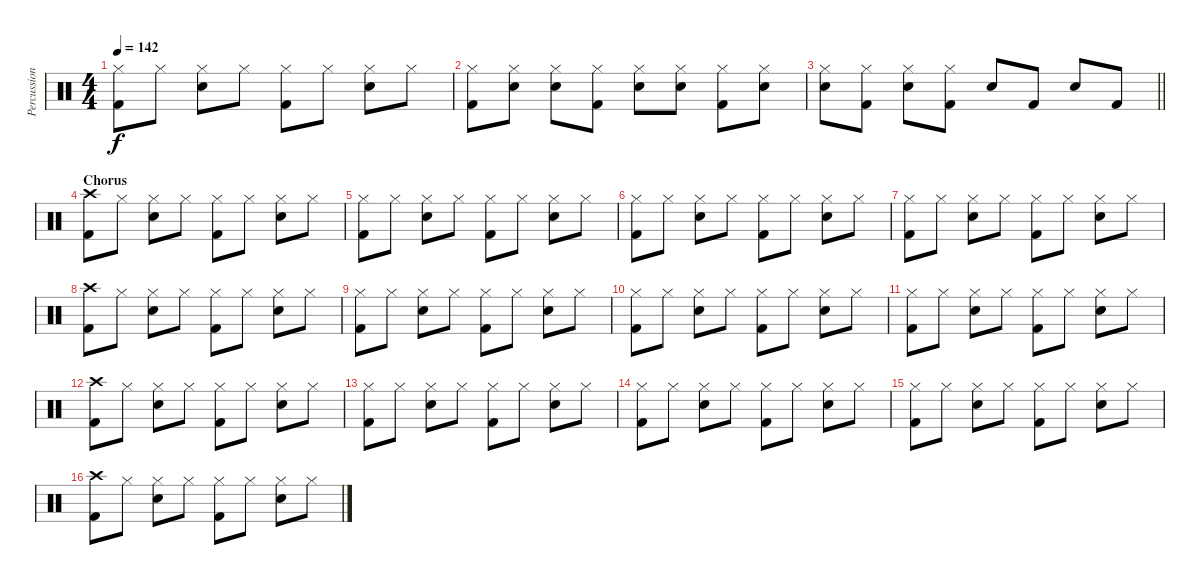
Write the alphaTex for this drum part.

\track ("Percussion" "Percussion") {instrument percussion}
\staff {score}
\articulation defaults
\ts (4 4)
\tempo 142
\clef neutral
\ks c
("Hi-Hat (closed)" "Kick (hit) 2").8{dy f} "Hi-Hat (closed)".8 ("Hi-Hat (closed)" "Electric Snare (hit)").8 "Hi-Hat (closed)".8 ("Hi-Hat (closed)" "Kick (hit) 2").8 "Hi-Hat (closed)".8 ("Hi-Hat (closed)" "Electric Snare (hit)").8 "Hi-Hat (closed)".8 |
("Hi-Hat (closed)" "Kick (hit) 2").8 ("Hi-Hat (closed)" "Electric Snare (hit)").8 ("Hi-Hat (closed)" "Electric Snare (hit)").8 ("Hi-Hat (closed)" "Kick (hit) 2").8 ("Hi-Hat (closed)" "Electric Snare (hit)").8 ("Hi-Hat (closed)" "Electric Snare (hit)").8 ("Hi-Hat (closed)" "Kick (hit) 2").8 ("Hi-Hat (closed)" "Electric Snare (hit)").8 |
\barLineRight lightlight
("Hi-Hat (closed)" "Electric Snare (hit)").8 ("Hi-Hat (closed)" "Kick (hit) 2").8 ("Hi-Hat (closed)" "Electric Snare (hit)").8 ("Hi-Hat (closed)" "Kick (hit) 2").8 "Electric Snare (hit)".8 "Kick (hit) 2".8 "Electric Snare (hit)".8 "Kick (hit) 2".8 |
\section ("" "Chorus")
("Crash high (hit)" "Kick (hit) 2").8 "Hi-Hat (closed)".8 ("Hi-Hat (closed)" "Electric Snare (hit)").8 "Hi-Hat (closed)".8 ("Hi-Hat (closed)" "Kick (hit) 2").8 "Hi-Hat (closed)".8 ("Hi-Hat (closed)" "Electric Snare (hit)").8 "Hi-Hat (closed)".8 |
("Hi-Hat (closed)" "Kick (hit) 2").8 "Hi-Hat (closed)".8 ("Hi-Hat (closed)" "Electric Snare (hit)").8 "Hi-Hat (closed)".8 ("Hi-Hat (closed)" "Kick (hit) 2").8 "Hi-Hat (closed)".8 ("Hi-Hat (closed)" "Electric Snare (hit)").8 "Hi-Hat (closed)".8 |
("Hi-Hat (closed)" "Kick (hit) 2").8 "Hi-Hat (closed)".8 ("Hi-Hat (closed)" "Electric Snare (hit)").8 "Hi-Hat (closed)".8 ("Hi-Hat (closed)" "Kick (hit) 2").8 "Hi-Hat (closed)".8 ("Hi-Hat (closed)" "Electric Snare (hit)").8 "Hi-Hat (closed)".8 |
("Hi-Hat (closed)" "Kick (hit) 2").8 "Hi-Hat (closed)".8 ("Hi-Hat (closed)" "Electric Snare (hit)").8 "Hi-Hat (closed)".8 ("Hi-Hat (closed)" "Kick (hit) 2").8 "Hi-Hat (closed)".8 ("Hi-Hat (closed)" "Electric Snare (hit)").8 "Hi-Hat (closed)".8 |
("Crash high (hit)" "Kick (hit) 2").8 "Hi-Hat (closed)".8 ("Hi-Hat (closed)" "Electric Snare (hit)").8 "Hi-Hat (closed)".8 ("Hi-Hat (closed)" "Kick (hit) 2").8 "Hi-Hat (closed)".8 ("Hi-Hat (closed)" "Electric Snare (hit)").8 "Hi-Hat (closed)".8 |
("Hi-Hat (closed)" "Kick (hit) 2").8 "Hi-Hat (closed)".8 ("Hi-Hat (closed)" "Electric Snare (hit)").8 "Hi-Hat (closed)".8 ("Hi-Hat (closed)" "Kick (hit) 2").8 "Hi-Hat (closed)".8 ("Hi-Hat (closed)" "Electric Snare (hit)").8 "Hi-Hat (closed)".8 |
("Hi-Hat (closed)" "Kick (hit) 2").8 "Hi-Hat (closed)".8 ("Hi-Hat (closed)" "Electric Snare (hit)").8 "Hi-Hat (closed)".8 ("Hi-Hat (closed)" "Kick (hit) 2").8 "Hi-Hat (closed)".8 ("Hi-Hat (closed)" "Electric Snare (hit)").8 "Hi-Hat (closed)".8 |
("Hi-Hat (closed)" "Kick (hit) 2").8 "Hi-Hat (closed)".8 ("Hi-Hat (closed)" "Electric Snare (hit)").8 "Hi-Hat (closed)".8 ("Hi-Hat (closed)" "Kick (hit) 2").8 "Hi-Hat (closed)".8 ("Hi-Hat (closed)" "Electric Snare (hit)").8 "Hi-Hat (closed)".8 |
("Crash high (hit)" "Kick (hit) 2").8 "Hi-Hat (closed)".8 ("Hi-Hat (closed)" "Electric Snare (hit)").8 "Hi-Hat (closed)".8 ("Hi-Hat (closed)" "Kick (hit) 2").8 "Hi-Hat (closed)".8 ("Hi-Hat (closed)" "Electric Snare (hit)").8 "Hi-Hat (closed)".8 |
("Hi-Hat (closed)" "Kick (hit) 2").8 "Hi-Hat (closed)".8 ("Hi-Hat (closed)" "Electric Snare (hit)").8 "Hi-Hat (closed)".8 ("Hi-Hat (closed)" "Kick (hit) 2").8 "Hi-Hat (closed)".8 ("Hi-Hat (closed)" "Electric Snare (hit)").8 "Hi-Hat (closed)".8 |
("Hi-Hat (closed)" "Kick (hit) 2").8 "Hi-Hat (closed)".8 ("Hi-Hat (closed)" "Electric Snare (hit)").8 "Hi-Hat (closed)".8 ("Hi-Hat (closed)" "Kick (hit) 2").8 "Hi-Hat (closed)".8 ("Hi-Hat (closed)" "Electric Snare (hit)").8 "Hi-Hat (closed)".8 |
("Hi-Hat (closed)" "Kick (hit) 2").8 "Hi-Hat (closed)".8 ("Hi-Hat (closed)" "Electric Snare (hit)").8 "Hi-Hat (closed)".8 ("Hi-Hat (closed)" "Kick (hit) 2").8 "Hi-Hat (closed)".8 ("Hi-Hat (closed)" "Electric Snare (hit)").8 "Hi-Hat (closed)".8 |
("Crash high (hit)" "Kick (hit) 2").8 "Hi-Hat (closed)".8 ("Hi-Hat (closed)" "Electric Snare (hit)").8 "Hi-Hat (closed)".8 ("Hi-Hat (closed)" "Kick (hit) 2").8 "Hi-Hat (closed)".8 ("Hi-Hat (closed)" "Electric Snare (hit)").8 "Hi-Hat (closed)".8
